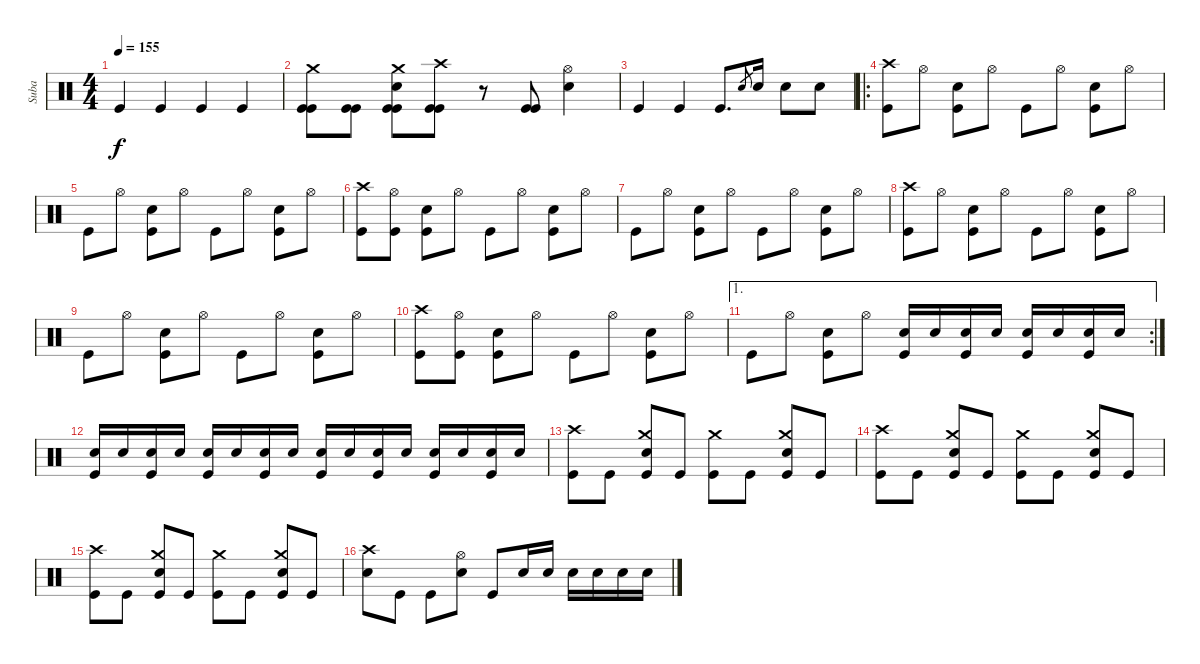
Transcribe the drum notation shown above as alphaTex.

\track ("Suba" "Suba") {instrument percussion}
\staff {score}
\articulation defaults
\ts (4 4)
\tempo 155
\clef neutral
\ks c "Kick (hit)".4{dy f} "Kick (hit)".4 "Kick (hit)".4 "Kick (hit)".4
|
("Crash medium (hit)" "Kick (hit)" "Kick (hit)").8 ("Kick (hit)" "Kick (hit)").8 ("Crash medium (hit)" "Kick (hit)" "Electric Snare (hit)" "Kick (hit)").8 ("Crash high (hit)" "Kick (hit)" "Kick (hit)").8 r.8 ("Kick (hit)" "Kick (hit)").8 ("Hi-Hat (open)" "Electric Snare (hit)").4 |
"Kick (hit)".4 "Kick (hit)".4 "Kick (hit)".8{d} "Electric Snare (hit)".8{gr} "Electric Snare (hit)".16 "Electric Snare (hit)".8 "Electric Snare (hit)".8 |
\ro
("Crash high (hit)" "Kick (hit)").8 "Hi-Hat (open)".8 ("Electric Snare (hit)" "Kick (hit)").8 "Hi-Hat (open)".8 "Kick (hit)".8 "Hi-Hat (open)".8 ("Electric Snare (hit)" "Kick (hit)").8 "Hi-Hat (open)".8 |
"Kick (hit)".8 "Hi-Hat (open)".8 ("Electric Snare (hit)" "Kick (hit)").8 "Hi-Hat (open)".8 "Kick (hit)".8 "Hi-Hat (open)".8 ("Electric Snare (hit)" "Kick (hit)").8 "Hi-Hat (open)".8 |
("Crash high (hit)" "Kick (hit)").8 ("Hi-Hat (open)" "Kick (hit)").8 ("Electric Snare (hit)" "Kick (hit)").8 "Hi-Hat (open)".8 "Kick (hit)".8 "Hi-Hat (open)".8 ("Electric Snare (hit)" "Kick (hit)").8 "Hi-Hat (open)".8 |
"Kick (hit)".8 "Hi-Hat (open)".8 ("Electric Snare (hit)" "Kick (hit)").8 "Hi-Hat (open)".8 "Kick (hit)".8 "Hi-Hat (open)".8 ("Electric Snare (hit)" "Kick (hit)").8 "Hi-Hat (open)".8 |
("Crash high (hit)" "Kick (hit)").8 "Hi-Hat (open)".8 ("Electric Snare (hit)" "Kick (hit)").8 "Hi-Hat (open)".8 "Kick (hit)".8 "Hi-Hat (open)".8 ("Electric Snare (hit)" "Kick (hit)").8 "Hi-Hat (open)".8 |
"Kick (hit)".8 "Hi-Hat (open)".8 ("Electric Snare (hit)" "Kick (hit)").8 "Hi-Hat (open)".8 "Kick (hit)".8 "Hi-Hat (open)".8 ("Electric Snare (hit)" "Kick (hit)").8 "Hi-Hat (open)".8 |
("Crash high (hit)" "Kick (hit)").8 ("Hi-Hat (open)" "Kick (hit)").8 ("Electric Snare (hit)" "Kick (hit)").8 "Hi-Hat (open)".8 "Kick (hit)".8 "Hi-Hat (open)".8 ("Electric Snare (hit)" "Kick (hit)").8 "Hi-Hat (open)".8 |
\ae 1
\rc 2 "Kick (hit)".8 "Hi-Hat (open)".8
("Electric Snare (hit)" "Kick (hit)").8 "Hi-Hat (open)".8 ("Electric Snare (hit)" "Kick (hit)").16 "Electric Snare (hit)".16 ("Electric Snare (hit)" "Kick (hit)").16 "Electric Snare (hit)".16 ("Electric Snare (hit)" "Kick (hit)").16 "Electric Snare (hit)".16 ("Electric Snare (hit)" "Kick (hit)").16 "Electric Snare (hit)".16 |
("Electric Snare (hit)" "Kick (hit)").16 "Electric Snare (hit)".16 ("Electric Snare (hit)" "Kick (hit)").16 "Electric Snare (hit)".16 ("Electric Snare (hit)" "Kick (hit)").16 "Electric Snare (hit)".16 ("Electric Snare (hit)" "Kick (hit)").16 "Electric Snare (hit)".16 ("Electric Snare (hit)" "Kick (hit)").16 "Electric Snare (hit)".16 ("Electric Snare (hit)" "Kick (hit)").16 "Electric Snare (hit)".16 ("Electric Snare (hit)" "Kick (hit)").16 "Electric Snare (hit)".16 ("Electric Snare (hit)" "Kick (hit)").16 "Electric Snare (hit)".16 |
("Crash high (hit)" "Kick (hit)").8 "Kick (hit)".8 ("Crash medium (hit)" "Electric Snare (hit)" "Kick (hit)").8 "Kick (hit)".8 ("Crash medium (hit)" "Kick (hit)").8 "Kick (hit)".8 ("Crash medium (hit)" "Electric Snare (hit)" "Kick (hit)").8 "Kick (hit)".8 |
("Crash high (hit)" "Kick (hit)").8 "Kick (hit)".8 ("Crash medium (hit)" "Electric Snare (hit)" "Kick (hit)").8 "Kick (hit)".8 ("Crash medium (hit)" "Kick (hit)").8 "Kick (hit)".8 ("Crash medium (hit)" "Electric Snare (hit)" "Kick (hit)").8 "Kick (hit)".8 |
("Crash high (hit)" "Kick (hit)").8 "Kick (hit)".8 ("Crash medium (hit)" "Electric Snare (hit)" "Kick (hit)").8 "Kick (hit)".8 ("Crash medium (hit)" "Kick (hit)").8 "Kick (hit)".8 ("Crash medium (hit)" "Electric Snare (hit)" "Kick (hit)").8 "Kick (hit)".8 |
("Crash high (hit)" "Electric Snare (hit)").8 "Kick (hit)".8 "Kick (hit)".8 ("Hi-Hat (open)" "Electric Snare (hit)").8 "Kick (hit)".8 "Electric Snare (hit)".16 "Electric Snare (hit)".16 "Electric Snare (hit)".16 "Electric Snare (hit)".16 "Electric Snare (hit)".16 "Electric Snare (hit)".16
